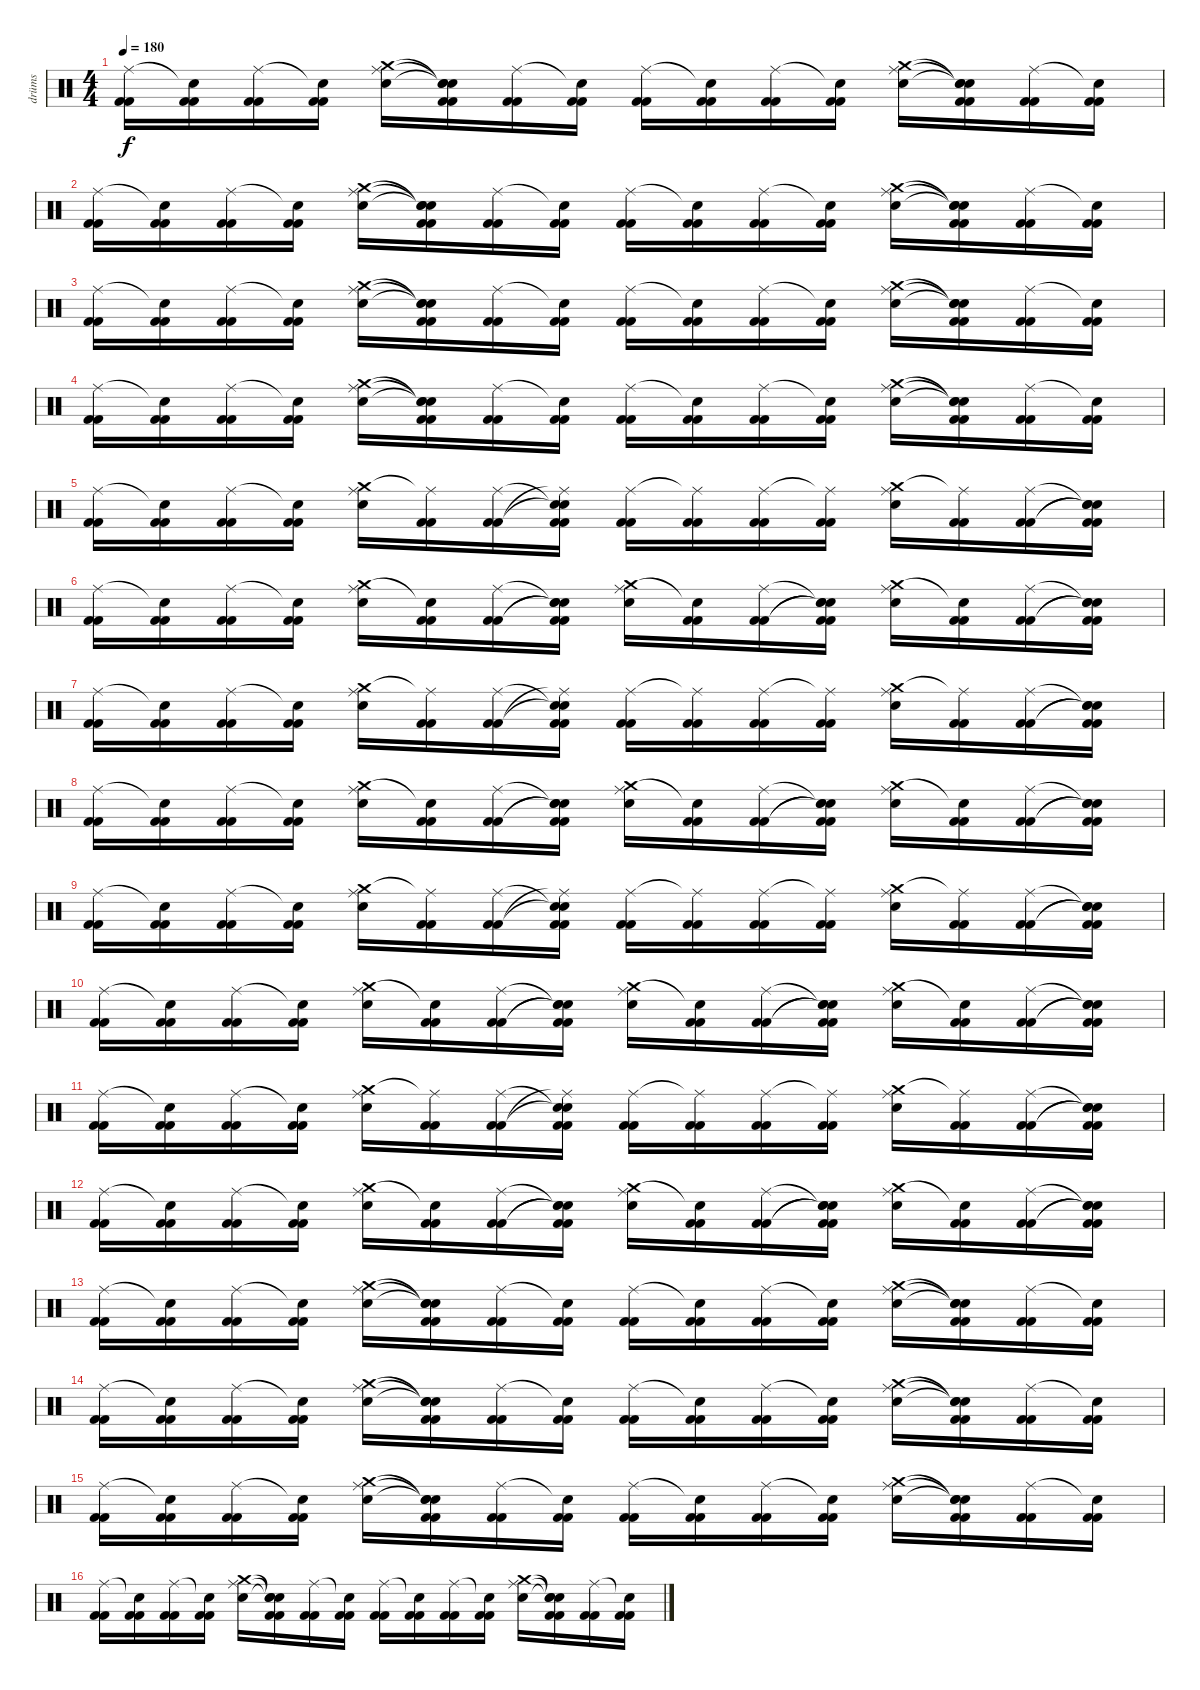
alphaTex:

\track ("drüms" "drüms") {instrument percussion}
\staff {score}
\articulation defaults
\ts (4 4)
\tempo 180
\clef neutral
\ks c
("Ride (middle)" "Kick (hit) 2" "Kick (hit) 2").16{dy f} ("Snare (hit)"{t} "Kick (hit) 2" "Kick (hit) 2").16 ("Ride (middle)" "Kick (hit) 2" "Kick (hit) 2").16 ("Snare (hit)"{t} "Kick (hit) 2" "Kick (hit) 2").16 ("Crash medium (hit)" "Electric Snare (hit)" "Ride (middle)").16 ("Snare (hit)"{t} "Snare (hit)"{t} "Snare (hit)"{t} "Kick (hit) 2" "Kick (hit) 2").16 ("Ride (middle)" "Kick (hit) 2" "Kick (hit) 2").16 ("Snare (hit)"{t} "Kick (hit) 2" "Kick (hit) 2").16 ("Ride (middle)" "Kick (hit) 2" "Kick (hit) 2").16 ("Snare (hit)"{t} "Kick (hit) 2" "Kick (hit) 2").16 ("Ride (middle)" "Kick (hit) 2" "Kick (hit) 2").16 ("Snare (hit)"{t} "Kick (hit) 2" "Kick (hit) 2").16 ("Crash medium (hit)" "Electric Snare (hit)" "Ride (middle)").16 ("Snare (hit)"{t} "Snare (hit)"{t} "Snare (hit)"{t} "Kick (hit) 2" "Kick (hit) 2").16 ("Ride (middle)" "Kick (hit) 2" "Kick (hit) 2").16 ("Snare (hit)"{t} "Kick (hit) 2" "Kick (hit) 2").16 |
("Ride (middle)" "Kick (hit) 2" "Kick (hit) 2").16 ("Snare (hit)"{t} "Kick (hit) 2" "Kick (hit) 2").16 ("Ride (middle)" "Kick (hit) 2" "Kick (hit) 2").16 ("Snare (hit)"{t} "Kick (hit) 2" "Kick (hit) 2").16 ("Crash medium (hit)" "Electric Snare (hit)" "Ride (middle)").16 ("Snare (hit)"{t} "Snare (hit)"{t} "Snare (hit)"{t} "Kick (hit) 2" "Kick (hit) 2").16 ("Ride (middle)" "Kick (hit) 2" "Kick (hit) 2").16 ("Snare (hit)"{t} "Kick (hit) 2" "Kick (hit) 2").16 ("Ride (middle)" "Kick (hit) 2" "Kick (hit) 2").16 ("Snare (hit)"{t} "Kick (hit) 2" "Kick (hit) 2").16 ("Ride (middle)" "Kick (hit) 2" "Kick (hit) 2").16 ("Snare (hit)"{t} "Kick (hit) 2" "Kick (hit) 2").16 ("Crash medium (hit)" "Electric Snare (hit)" "Ride (middle)").16 ("Snare (hit)"{t} "Snare (hit)"{t} "Snare (hit)"{t} "Kick (hit) 2" "Kick (hit) 2").16 ("Ride (middle)" "Kick (hit) 2" "Kick (hit) 2").16 ("Snare (hit)"{t} "Kick (hit) 2" "Kick (hit) 2").16 |
("Ride (middle)" "Kick (hit) 2" "Kick (hit) 2").16 ("Snare (hit)"{t} "Kick (hit) 2" "Kick (hit) 2").16 ("Ride (middle)" "Kick (hit) 2" "Kick (hit) 2").16 ("Snare (hit)"{t} "Kick (hit) 2" "Kick (hit) 2").16 ("Crash medium (hit)" "Electric Snare (hit)" "Ride (middle)").16 ("Snare (hit)"{t} "Snare (hit)"{t} "Snare (hit)"{t} "Kick (hit) 2" "Kick (hit) 2").16 ("Ride (middle)" "Kick (hit) 2" "Kick (hit) 2").16 ("Snare (hit)"{t} "Kick (hit) 2" "Kick (hit) 2").16 ("Ride (middle)" "Kick (hit) 2" "Kick (hit) 2").16 ("Snare (hit)"{t} "Kick (hit) 2" "Kick (hit) 2").16 ("Ride (middle)" "Kick (hit) 2" "Kick (hit) 2").16 ("Snare (hit)"{t} "Kick (hit) 2" "Kick (hit) 2").16 ("Crash medium (hit)" "Electric Snare (hit)" "Ride (middle)").16 ("Snare (hit)"{t} "Snare (hit)"{t} "Snare (hit)"{t} "Kick (hit) 2" "Kick (hit) 2").16 ("Ride (middle)" "Kick (hit) 2" "Kick (hit) 2").16 ("Snare (hit)"{t} "Kick (hit) 2" "Kick (hit) 2").16 |
("Ride (middle)" "Kick (hit) 2" "Kick (hit) 2").16 ("Snare (hit)"{t} "Kick (hit) 2" "Kick (hit) 2").16 ("Ride (middle)" "Kick (hit) 2" "Kick (hit) 2").16 ("Snare (hit)"{t} "Kick (hit) 2" "Kick (hit) 2").16 ("Crash medium (hit)" "Electric Snare (hit)" "Ride (middle)").16 ("Snare (hit)"{t} "Snare (hit)"{t} "Snare (hit)"{t} "Kick (hit) 2" "Kick (hit) 2").16 ("Ride (middle)" "Kick (hit) 2" "Kick (hit) 2").16 ("Snare (hit)"{t} "Kick (hit) 2" "Kick (hit) 2").16 ("Ride (middle)" "Kick (hit) 2" "Kick (hit) 2").16 ("Snare (hit)"{t} "Kick (hit) 2" "Kick (hit) 2").16 ("Ride (middle)" "Kick (hit) 2" "Kick (hit) 2").16 ("Snare (hit)"{t} "Kick (hit) 2" "Kick (hit) 2").16 ("Crash medium (hit)" "Electric Snare (hit)" "Ride (middle)").16 ("Snare (hit)"{t} "Snare (hit)"{t} "Snare (hit)"{t} "Kick (hit) 2" "Kick (hit) 2").16 ("Ride (middle)" "Kick (hit) 2" "Kick (hit) 2").16 ("Snare (hit)"{t} "Kick (hit) 2" "Kick (hit) 2").16 |
("Ride (middle)" "Kick (hit) 2" "Kick (hit) 2").16 ("Snare (hit)"{t} "Kick (hit) 2" "Kick (hit) 2").16 ("Ride (middle)" "Kick (hit) 2" "Kick (hit) 2").16 ("Snare (hit)"{t} "Kick (hit) 2" "Kick (hit) 2").16 ("Crash medium (hit)" "Electric Snare (hit)" "Ride (middle)").16 ("Ride (middle)"{t} "Kick (hit) 2" "Kick (hit) 2").16 ("Ride (middle)" "Kick (hit) 2" "Kick (hit) 2").16 ("Snare (hit)"{t} "Snare (hit)"{t} "Ride (middle)"{t} "Kick (hit) 2" "Kick (hit) 2").16 ("Ride (middle)" "Kick (hit) 2" "Kick (hit) 2").16 ("Ride (middle)"{t} "Kick (hit) 2" "Kick (hit) 2").16 ("Ride (middle)" "Kick (hit) 2" "Kick (hit) 2").16 ("Ride (middle)"{t} "Kick (hit) 2" "Kick (hit) 2").16 ("Crash medium (hit)" "Electric Snare (hit)" "Ride (middle)").16 ("Ride (middle)"{t} "Kick (hit) 2" "Kick (hit) 2").16 ("Ride (middle)" "Kick (hit) 2" "Kick (hit) 2").16 ("Snare (hit)"{t} "Snare (hit)"{t} "Snare (hit)"{t} "Kick (hit) 2" "Kick (hit) 2").16 |
("Ride (middle)" "Kick (hit) 2" "Kick (hit) 2").16 ("Snare (hit)"{t} "Kick (hit) 2" "Kick (hit) 2").16 ("Ride (middle)" "Kick (hit) 2" "Kick (hit) 2").16 ("Snare (hit)"{t} "Kick (hit) 2" "Kick (hit) 2").16 ("Crash medium (hit)" "Electric Snare (hit)" "Ride (middle)").16 ("Snare (hit)"{t} "Kick (hit) 2" "Kick (hit) 2").16 ("Ride (middle)" "Kick (hit) 2" "Kick (hit) 2").16 ("Snare (hit)"{t} "Snare (hit)"{t} "Snare (hit)"{t} "Kick (hit) 2" "Kick (hit) 2").16 ("Crash medium (hit)" "Electric Snare (hit)" "Ride (middle)").16 ("Snare (hit)"{t} "Kick (hit) 2" "Kick (hit) 2").16 ("Ride (middle)" "Kick (hit) 2" "Kick (hit) 2").16 ("Snare (hit)"{t} "Snare (hit)"{t} "Snare (hit)"{t} "Kick (hit) 2" "Kick (hit) 2").16 ("Crash medium (hit)" "Electric Snare (hit)" "Ride (middle)").16 ("Snare (hit)"{t} "Kick (hit) 2" "Kick (hit) 2").16 ("Ride (middle)" "Kick (hit) 2" "Kick (hit) 2").16 ("Snare (hit)"{t} "Snare (hit)"{t} "Snare (hit)"{t} "Kick (hit) 2" "Kick (hit) 2").16 |
("Ride (middle)" "Kick (hit) 2" "Kick (hit) 2").16 ("Snare (hit)"{t} "Kick (hit) 2" "Kick (hit) 2").16 ("Ride (middle)" "Kick (hit) 2" "Kick (hit) 2").16 ("Snare (hit)"{t} "Kick (hit) 2" "Kick (hit) 2").16 ("Crash medium (hit)" "Electric Snare (hit)" "Ride (middle)").16 ("Ride (middle)"{t} "Kick (hit) 2" "Kick (hit) 2").16 ("Ride (middle)" "Kick (hit) 2" "Kick (hit) 2").16 ("Snare (hit)"{t} "Snare (hit)"{t} "Ride (middle)"{t} "Kick (hit) 2" "Kick (hit) 2").16 ("Ride (middle)" "Kick (hit) 2" "Kick (hit) 2").16 ("Ride (middle)"{t} "Kick (hit) 2" "Kick (hit) 2").16 ("Ride (middle)" "Kick (hit) 2" "Kick (hit) 2").16 ("Ride (middle)"{t} "Kick (hit) 2" "Kick (hit) 2").16 ("Crash medium (hit)" "Electric Snare (hit)" "Ride (middle)").16 ("Ride (middle)"{t} "Kick (hit) 2" "Kick (hit) 2").16 ("Ride (middle)" "Kick (hit) 2" "Kick (hit) 2").16 ("Snare (hit)"{t} "Snare (hit)"{t} "Snare (hit)"{t} "Kick (hit) 2" "Kick (hit) 2").16 |
("Ride (middle)" "Kick (hit) 2" "Kick (hit) 2").16 ("Snare (hit)"{t} "Kick (hit) 2" "Kick (hit) 2").16 ("Ride (middle)" "Kick (hit) 2" "Kick (hit) 2").16 ("Snare (hit)"{t} "Kick (hit) 2" "Kick (hit) 2").16 ("Crash medium (hit)" "Electric Snare (hit)" "Ride (middle)").16 ("Snare (hit)"{t} "Kick (hit) 2" "Kick (hit) 2").16 ("Ride (middle)" "Kick (hit) 2" "Kick (hit) 2").16 ("Snare (hit)"{t} "Snare (hit)"{t} "Snare (hit)"{t} "Kick (hit) 2" "Kick (hit) 2").16 ("Crash medium (hit)" "Electric Snare (hit)" "Ride (middle)").16 ("Snare (hit)"{t} "Kick (hit) 2" "Kick (hit) 2").16 ("Ride (middle)" "Kick (hit) 2" "Kick (hit) 2").16 ("Snare (hit)"{t} "Snare (hit)"{t} "Snare (hit)"{t} "Kick (hit) 2" "Kick (hit) 2").16 ("Crash medium (hit)" "Electric Snare (hit)" "Ride (middle)").16 ("Snare (hit)"{t} "Kick (hit) 2" "Kick (hit) 2").16 ("Ride (middle)" "Kick (hit) 2" "Kick (hit) 2").16 ("Snare (hit)"{t} "Snare (hit)"{t} "Snare (hit)"{t} "Kick (hit) 2" "Kick (hit) 2").16 |
("Ride (middle)" "Kick (hit) 2" "Kick (hit) 2").16 ("Snare (hit)"{t} "Kick (hit) 2" "Kick (hit) 2").16 ("Ride (middle)" "Kick (hit) 2" "Kick (hit) 2").16 ("Snare (hit)"{t} "Kick (hit) 2" "Kick (hit) 2").16 ("Crash medium (hit)" "Electric Snare (hit)" "Ride (middle)").16 ("Ride (middle)"{t} "Kick (hit) 2" "Kick (hit) 2").16 ("Ride (middle)" "Kick (hit) 2" "Kick (hit) 2").16 ("Snare (hit)"{t} "Snare (hit)"{t} "Ride (middle)"{t} "Kick (hit) 2" "Kick (hit) 2").16 ("Ride (middle)" "Kick (hit) 2" "Kick (hit) 2").16 ("Ride (middle)"{t} "Kick (hit) 2" "Kick (hit) 2").16 ("Ride (middle)" "Kick (hit) 2" "Kick (hit) 2").16 ("Ride (middle)"{t} "Kick (hit) 2" "Kick (hit) 2").16 ("Crash medium (hit)" "Electric Snare (hit)" "Ride (middle)").16 ("Ride (middle)"{t} "Kick (hit) 2" "Kick (hit) 2").16 ("Ride (middle)" "Kick (hit) 2" "Kick (hit) 2").16 ("Snare (hit)"{t} "Snare (hit)"{t} "Snare (hit)"{t} "Kick (hit) 2" "Kick (hit) 2").16 |
("Ride (middle)" "Kick (hit) 2" "Kick (hit) 2").16 ("Snare (hit)"{t} "Kick (hit) 2" "Kick (hit) 2").16 ("Ride (middle)" "Kick (hit) 2" "Kick (hit) 2").16 ("Snare (hit)"{t} "Kick (hit) 2" "Kick (hit) 2").16 ("Crash medium (hit)" "Electric Snare (hit)" "Ride (middle)").16 ("Snare (hit)"{t} "Kick (hit) 2" "Kick (hit) 2").16 ("Ride (middle)" "Kick (hit) 2" "Kick (hit) 2").16 ("Snare (hit)"{t} "Snare (hit)"{t} "Snare (hit)"{t} "Kick (hit) 2" "Kick (hit) 2").16 ("Crash medium (hit)" "Electric Snare (hit)" "Ride (middle)").16 ("Snare (hit)"{t} "Kick (hit) 2" "Kick (hit) 2").16 ("Ride (middle)" "Kick (hit) 2" "Kick (hit) 2").16 ("Snare (hit)"{t} "Snare (hit)"{t} "Snare (hit)"{t} "Kick (hit) 2" "Kick (hit) 2").16 ("Crash medium (hit)" "Electric Snare (hit)" "Ride (middle)").16 ("Snare (hit)"{t} "Kick (hit) 2" "Kick (hit) 2").16 ("Ride (middle)" "Kick (hit) 2" "Kick (hit) 2").16 ("Snare (hit)"{t} "Snare (hit)"{t} "Snare (hit)"{t} "Kick (hit) 2" "Kick (hit) 2").16 |
("Ride (middle)" "Kick (hit) 2" "Kick (hit) 2").16 ("Snare (hit)"{t} "Kick (hit) 2" "Kick (hit) 2").16 ("Ride (middle)" "Kick (hit) 2" "Kick (hit) 2").16 ("Snare (hit)"{t} "Kick (hit) 2" "Kick (hit) 2").16 ("Crash medium (hit)" "Electric Snare (hit)" "Ride (middle)").16 ("Ride (middle)"{t} "Kick (hit) 2" "Kick (hit) 2").16 ("Ride (middle)" "Kick (hit) 2" "Kick (hit) 2").16 ("Snare (hit)"{t} "Snare (hit)"{t} "Ride (middle)"{t} "Kick (hit) 2" "Kick (hit) 2").16 ("Ride (middle)" "Kick (hit) 2" "Kick (hit) 2").16 ("Ride (middle)"{t} "Kick (hit) 2" "Kick (hit) 2").16 ("Ride (middle)" "Kick (hit) 2" "Kick (hit) 2").16 ("Ride (middle)"{t} "Kick (hit) 2" "Kick (hit) 2").16 ("Crash medium (hit)" "Electric Snare (hit)" "Ride (middle)").16 ("Ride (middle)"{t} "Kick (hit) 2" "Kick (hit) 2").16 ("Ride (middle)" "Kick (hit) 2" "Kick (hit) 2").16 ("Snare (hit)"{t} "Snare (hit)"{t} "Snare (hit)"{t} "Kick (hit) 2" "Kick (hit) 2").16 |
("Ride (middle)" "Kick (hit) 2" "Kick (hit) 2").16 ("Snare (hit)"{t} "Kick (hit) 2" "Kick (hit) 2").16 ("Ride (middle)" "Kick (hit) 2" "Kick (hit) 2").16 ("Snare (hit)"{t} "Kick (hit) 2" "Kick (hit) 2").16 ("Crash medium (hit)" "Electric Snare (hit)" "Ride (middle)").16 ("Snare (hit)"{t} "Kick (hit) 2" "Kick (hit) 2").16 ("Ride (middle)" "Kick (hit) 2" "Kick (hit) 2").16 ("Snare (hit)"{t} "Snare (hit)"{t} "Snare (hit)"{t} "Kick (hit) 2" "Kick (hit) 2").16 ("Crash medium (hit)" "Electric Snare (hit)" "Ride (middle)").16 ("Snare (hit)"{t} "Kick (hit) 2" "Kick (hit) 2").16 ("Ride (middle)" "Kick (hit) 2" "Kick (hit) 2").16 ("Snare (hit)"{t} "Snare (hit)"{t} "Snare (hit)"{t} "Kick (hit) 2" "Kick (hit) 2").16 ("Crash medium (hit)" "Electric Snare (hit)" "Ride (middle)").16 ("Snare (hit)"{t} "Kick (hit) 2" "Kick (hit) 2").16 ("Ride (middle)" "Kick (hit) 2" "Kick (hit) 2").16 ("Snare (hit)"{t} "Snare (hit)"{t} "Snare (hit)"{t} "Kick (hit) 2" "Kick (hit) 2").16 |
("Ride (middle)" "Kick (hit) 2" "Kick (hit) 2").16 ("Snare (hit)"{t} "Kick (hit) 2" "Kick (hit) 2").16 ("Ride (middle)" "Kick (hit) 2" "Kick (hit) 2").16 ("Snare (hit)"{t} "Kick (hit) 2" "Kick (hit) 2").16 ("Crash medium (hit)" "Electric Snare (hit)" "Ride (middle)").16 ("Snare (hit)"{t} "Snare (hit)"{t} "Snare (hit)"{t} "Kick (hit) 2" "Kick (hit) 2").16 ("Ride (middle)" "Kick (hit) 2" "Kick (hit) 2").16 ("Snare (hit)"{t} "Kick (hit) 2" "Kick (hit) 2").16 ("Ride (middle)" "Kick (hit) 2" "Kick (hit) 2").16 ("Snare (hit)"{t} "Kick (hit) 2" "Kick (hit) 2").16 ("Ride (middle)" "Kick (hit) 2" "Kick (hit) 2").16 ("Snare (hit)"{t} "Kick (hit) 2" "Kick (hit) 2").16 ("Crash medium (hit)" "Electric Snare (hit)" "Ride (middle)").16 ("Snare (hit)"{t} "Snare (hit)"{t} "Snare (hit)"{t} "Kick (hit) 2" "Kick (hit) 2").16 ("Ride (middle)" "Kick (hit) 2" "Kick (hit) 2").16 ("Snare (hit)"{t} "Kick (hit) 2" "Kick (hit) 2").16 |
("Ride (middle)" "Kick (hit) 2" "Kick (hit) 2").16 ("Snare (hit)"{t} "Kick (hit) 2" "Kick (hit) 2").16 ("Ride (middle)" "Kick (hit) 2" "Kick (hit) 2").16 ("Snare (hit)"{t} "Kick (hit) 2" "Kick (hit) 2").16 ("Crash medium (hit)" "Electric Snare (hit)" "Ride (middle)").16 ("Snare (hit)"{t} "Snare (hit)"{t} "Snare (hit)"{t} "Kick (hit) 2" "Kick (hit) 2").16 ("Ride (middle)" "Kick (hit) 2" "Kick (hit) 2").16 ("Snare (hit)"{t} "Kick (hit) 2" "Kick (hit) 2").16 ("Ride (middle)" "Kick (hit) 2" "Kick (hit) 2").16 ("Snare (hit)"{t} "Kick (hit) 2" "Kick (hit) 2").16 ("Ride (middle)" "Kick (hit) 2" "Kick (hit) 2").16 ("Snare (hit)"{t} "Kick (hit) 2" "Kick (hit) 2").16 ("Crash medium (hit)" "Electric Snare (hit)" "Ride (middle)").16 ("Snare (hit)"{t} "Snare (hit)"{t} "Snare (hit)"{t} "Kick (hit) 2" "Kick (hit) 2").16 ("Ride (middle)" "Kick (hit) 2" "Kick (hit) 2").16 ("Snare (hit)"{t} "Kick (hit) 2" "Kick (hit) 2").16 |
("Ride (middle)" "Kick (hit) 2" "Kick (hit) 2").16 ("Snare (hit)"{t} "Kick (hit) 2" "Kick (hit) 2").16 ("Ride (middle)" "Kick (hit) 2" "Kick (hit) 2").16 ("Snare (hit)"{t} "Kick (hit) 2" "Kick (hit) 2").16 ("Crash medium (hit)" "Electric Snare (hit)" "Ride (middle)").16 ("Snare (hit)"{t} "Snare (hit)"{t} "Snare (hit)"{t} "Kick (hit) 2" "Kick (hit) 2").16 ("Ride (middle)" "Kick (hit) 2" "Kick (hit) 2").16 ("Snare (hit)"{t} "Kick (hit) 2" "Kick (hit) 2").16 ("Ride (middle)" "Kick (hit) 2" "Kick (hit) 2").16 ("Snare (hit)"{t} "Kick (hit) 2" "Kick (hit) 2").16 ("Ride (middle)" "Kick (hit) 2" "Kick (hit) 2").16 ("Snare (hit)"{t} "Kick (hit) 2" "Kick (hit) 2").16 ("Crash medium (hit)" "Electric Snare (hit)" "Ride (middle)").16 ("Snare (hit)"{t} "Snare (hit)"{t} "Snare (hit)"{t} "Kick (hit) 2" "Kick (hit) 2").16 ("Ride (middle)" "Kick (hit) 2" "Kick (hit) 2").16 ("Snare (hit)"{t} "Kick (hit) 2" "Kick (hit) 2").16 |
("Ride (middle)" "Kick (hit) 2" "Kick (hit) 2").16 ("Snare (hit)"{t} "Kick (hit) 2" "Kick (hit) 2").16 ("Ride (middle)" "Kick (hit) 2" "Kick (hit) 2").16 ("Snare (hit)"{t} "Kick (hit) 2" "Kick (hit) 2").16 ("Crash medium (hit)" "Electric Snare (hit)" "Ride (middle)").16 ("Snare (hit)"{t} "Snare (hit)"{t} "Snare (hit)"{t} "Kick (hit) 2" "Kick (hit) 2").16 ("Ride (middle)" "Kick (hit) 2" "Kick (hit) 2").16 ("Snare (hit)"{t} "Kick (hit) 2" "Kick (hit) 2").16 ("Ride (middle)" "Kick (hit) 2" "Kick (hit) 2").16 ("Snare (hit)"{t} "Kick (hit) 2" "Kick (hit) 2").16 ("Ride (middle)" "Kick (hit) 2" "Kick (hit) 2").16 ("Snare (hit)"{t} "Kick (hit) 2" "Kick (hit) 2").16 ("Crash medium (hit)" "Electric Snare (hit)" "Ride (middle)").16 ("Snare (hit)"{t} "Snare (hit)"{t} "Snare (hit)"{t} "Kick (hit) 2" "Kick (hit) 2").16 ("Ride (middle)" "Kick (hit) 2" "Kick (hit) 2").16 ("Snare (hit)"{t} "Kick (hit) 2" "Kick (hit) 2").16
